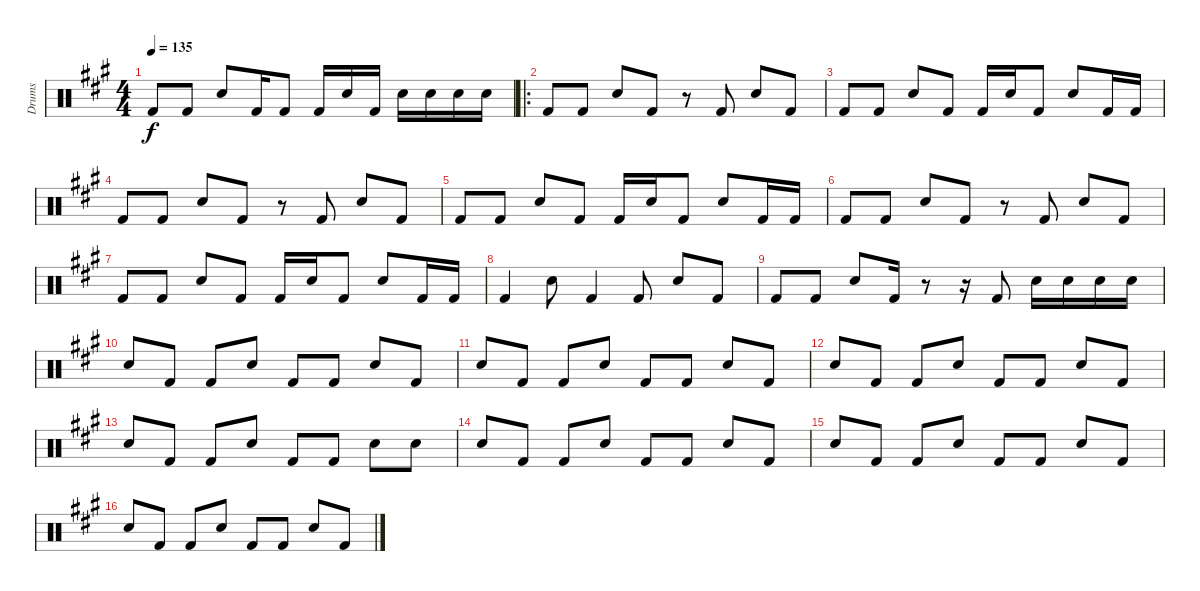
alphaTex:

\track ("Drums" "Drums") {instrument percussion}
\staff {score}
\articulation defaults
\ts (4 4)
\tempo 135
\clef neutral
\ks a "Kick (hit) 2".8{dy f} "Kick (hit) 2".8 "Snare (hit) 2".8 "Kick (hit) 2".16 "Kick (hit) 2".8 "Kick (hit) 2".16 "Snare (hit) 2".16 "Kick (hit) 2".16 "Snare (hit) 2".16 "Snare (hit) 2".16 "Snare (hit) 2".16 "Snare (hit) 2".16
|
\ro "Kick (hit) 2".8 "Kick (hit) 2".8 "Snare (hit) 2".8 "Kick (hit) 2".8
r.8 "Kick (hit) 2".8 "Snare (hit) 2".8 "Kick (hit) 2".8 |
"Kick (hit) 2".8 "Kick (hit) 2".8 "Snare (hit) 2".8 "Kick (hit) 2".8 "Kick (hit) 2".16 "Snare (hit) 2".16 "Kick (hit) 2".8 "Snare (hit) 2".8 "Kick (hit) 2".16 "Kick (hit) 2".16 |
"Kick (hit) 2".8 "Kick (hit) 2".8 "Snare (hit) 2".8 "Kick (hit) 2".8 r.8 "Kick (hit) 2".8 "Snare (hit) 2".8 "Kick (hit) 2".8 |
"Kick (hit) 2".8 "Kick (hit) 2".8 "Snare (hit) 2".8 "Kick (hit) 2".8 "Kick (hit) 2".16 "Snare (hit) 2".16 "Kick (hit) 2".8 "Snare (hit) 2".8 "Kick (hit) 2".16 "Kick (hit) 2".16 |
"Kick (hit) 2".8 "Kick (hit) 2".8 "Snare (hit) 2".8 "Kick (hit) 2".8 r.8 "Kick (hit) 2".8 "Snare (hit) 2".8 "Kick (hit) 2".8 |
"Kick (hit) 2".8 "Kick (hit) 2".8 "Snare (hit) 2".8 "Kick (hit) 2".8 "Kick (hit) 2".16 "Snare (hit) 2".16 "Kick (hit) 2".8 "Snare (hit) 2".8 "Kick (hit) 2".16 "Kick (hit) 2".16 |
"Kick (hit) 2".4 "Snare (hit) 2".8 "Kick (hit) 2".4 "Kick (hit) 2".8 "Snare (hit) 2".8 "Kick (hit) 2".8 |
"Kick (hit) 2".8 "Kick (hit) 2".8 "Snare (hit) 2".8 "Kick (hit) 2".16 r.8 r.16 "Kick (hit) 2".8 "Snare (hit) 2".16 "Snare (hit) 2".16 "Snare (hit) 2".16 "Snare (hit) 2".16 |
"Snare (hit) 2".8 "Kick (hit) 2".8 "Kick (hit) 2".8 "Snare (hit) 2".8 "Kick (hit) 2".8 "Kick (hit) 2".8 "Snare (hit) 2".8 "Kick (hit) 2".8 |
"Snare (hit) 2".8 "Kick (hit) 2".8 "Kick (hit) 2".8 "Snare (hit) 2".8 "Kick (hit) 2".8 "Kick (hit) 2".8 "Snare (hit) 2".8 "Kick (hit) 2".8 |
"Snare (hit) 2".8 "Kick (hit) 2".8 "Kick (hit) 2".8 "Snare (hit) 2".8 "Kick (hit) 2".8 "Kick (hit) 2".8 "Snare (hit) 2".8 "Kick (hit) 2".8 |
"Snare (hit) 2".8 "Kick (hit) 2".8 "Kick (hit) 2".8 "Snare (hit) 2".8 "Kick (hit) 2".8 "Kick (hit) 2".8 "Snare (hit) 2".8 "Snare (hit) 2".8 |
"Snare (hit) 2".8 "Kick (hit) 2".8 "Kick (hit) 2".8 "Snare (hit) 2".8 "Kick (hit) 2".8 "Kick (hit) 2".8 "Snare (hit) 2".8 "Kick (hit) 2".8 |
"Snare (hit) 2".8 "Kick (hit) 2".8 "Kick (hit) 2".8 "Snare (hit) 2".8 "Kick (hit) 2".8 "Kick (hit) 2".8 "Snare (hit) 2".8 "Kick (hit) 2".8 |
"Snare (hit) 2".8 "Kick (hit) 2".8 "Kick (hit) 2".8 "Snare (hit) 2".8 "Kick (hit) 2".8 "Kick (hit) 2".8 "Snare (hit) 2".8 "Kick (hit) 2".8
